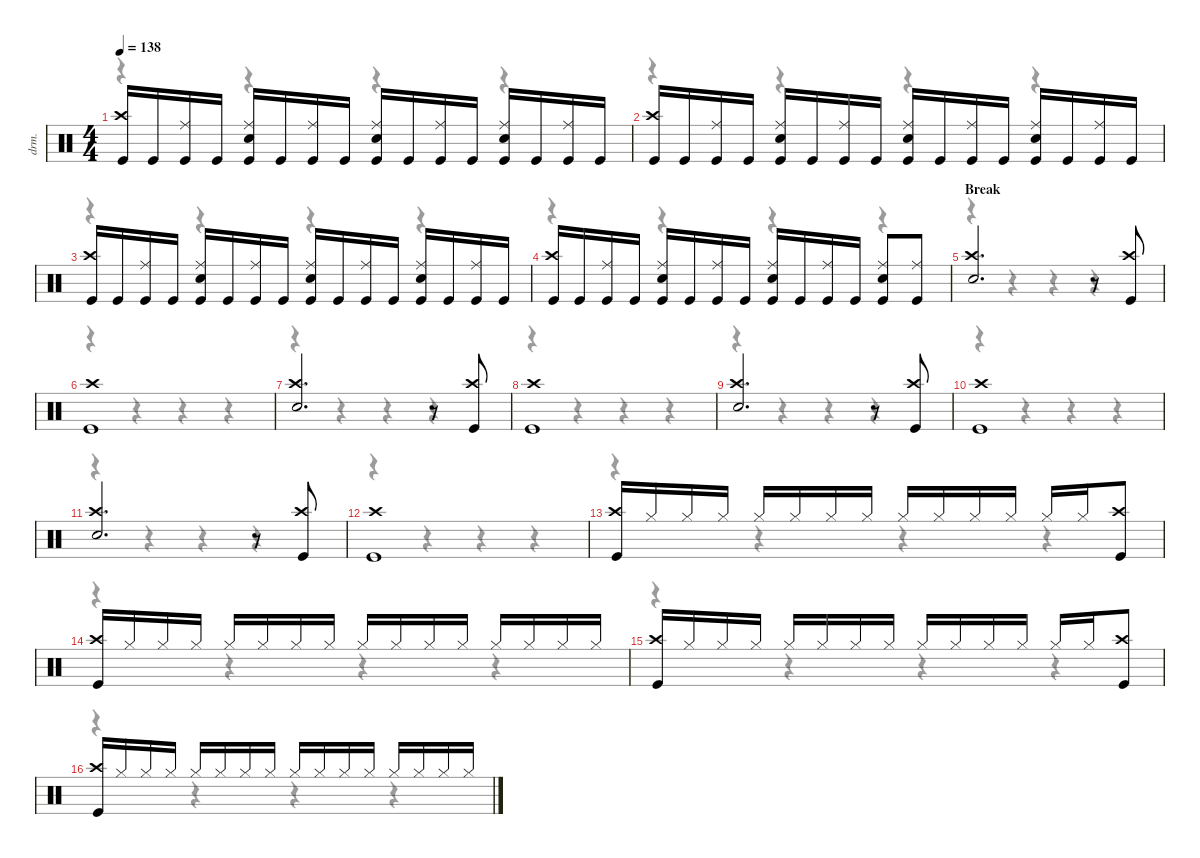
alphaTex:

\defaultSystemsLayout 4
\hideDynamics
\bracketExtendMode nobrackets
\track ("Drumkit" "drm.") {instrument percussion}
\staff {score}
\articulation defaults
\voice
\ts (4 4)
\tempo 138
\clef neutral
\ks c
("Kick (hit)" "Crash high (hit)").16{dy f} "Kick (hit)".16 ("Kick (hit)" "Ride (middle)").16 "Kick (hit)".16 ("Kick (hit)" "Snare (hit) 2" "Ride (middle)").16 "Kick (hit)".16 ("Kick (hit)" "Ride (middle)").16 "Kick (hit)".16 ("Kick (hit)" "Snare (hit) 2" "Ride (middle)").16 "Kick (hit)".16 ("Kick (hit)" "Ride (middle)").16 "Kick (hit)".16 ("Kick (hit)" "Snare (hit) 2" "Ride (middle)").16 "Kick (hit)".16 ("Kick (hit)" "Ride (middle)").16 "Kick (hit)".16 |
("Kick (hit)" "Crash high (hit)").16 "Kick (hit)".16 ("Kick (hit)" "Ride (middle)").16 "Kick (hit)".16 ("Kick (hit)" "Snare (hit) 2" "Ride (middle)").16 "Kick (hit)".16 ("Kick (hit)" "Ride (middle)").16 "Kick (hit)".16 ("Kick (hit)" "Snare (hit) 2" "Ride (middle)").16 "Kick (hit)".16 ("Kick (hit)" "Ride (middle)").16 "Kick (hit)".16 ("Kick (hit)" "Snare (hit) 2" "Ride (middle)").16 "Kick (hit)".16 ("Kick (hit)" "Ride (middle)").16 "Kick (hit)".16 |
("Kick (hit)" "Crash high (hit)").16 "Kick (hit)".16 ("Kick (hit)" "Ride (middle)").16 "Kick (hit)".16 ("Kick (hit)" "Snare (hit) 2" "Ride (middle)").16 "Kick (hit)".16 ("Kick (hit)" "Ride (middle)").16 "Kick (hit)".16 ("Kick (hit)" "Snare (hit) 2" "Ride (middle)").16 "Kick (hit)".16 ("Kick (hit)" "Ride (middle)").16 "Kick (hit)".16 ("Kick (hit)" "Snare (hit) 2" "Ride (middle)").16 "Kick (hit)".16 ("Kick (hit)" "Ride (middle)").16 "Kick (hit)".16 |
("Kick (hit)" "Crash high (hit)").16 "Kick (hit)".16 ("Kick (hit)" "Ride (middle)").16 "Kick (hit)".16 ("Kick (hit)" "Snare (hit) 2" "Ride (middle)").16 "Kick (hit)".16 ("Kick (hit)" "Ride (middle)").16 "Kick (hit)".16 ("Kick (hit)" "Snare (hit) 2" "Ride (middle)").16 "Kick (hit)".16 ("Kick (hit)" "Ride (middle)").16 "Kick (hit)".16 ("Kick (hit)" "Snare (hit) 2" "Ride (middle)").8 ("Kick (hit)" "Ride (middle)").8 |
\section ("" "Break")
("Snare (hit) 2" "Crash high (hit)").2{d} r.8 ("Kick (hit)" "Crash high (hit)").8 |
("Crash high (hit)" "Kick (hit)").1 |
("Snare (hit) 2" "Crash high (hit)").2{d} r.8 ("Kick (hit)" "Crash high (hit)").8 |
("Crash high (hit)" "Kick (hit)").1 |
("Snare (hit) 2" "Crash high (hit)").2{d} r.8 ("Kick (hit)" "Crash high (hit)").8 |
("Crash high (hit)" "Kick (hit)").1 |
("Snare (hit) 2" "Crash high (hit)").2{d} r.8 ("Kick (hit)" "Crash high (hit)").8 |
("Crash high (hit)" "Kick (hit)").1 |
("Crash high (hit)" "Kick (hit)").16 "Hi-Hat (closed)".16 "Hi-Hat (closed)".16 "Hi-Hat (closed)".16 "Hi-Hat (closed)".16 "Hi-Hat (closed)".16 "Hi-Hat (closed)".16 "Hi-Hat (closed)".16 "Hi-Hat (closed)".16 "Hi-Hat (closed)".16 "Hi-Hat (closed)".16 "Hi-Hat (closed)".16 "Hi-Hat (closed)".16 "Hi-Hat (closed)".16 ("Crash high (hit)" "Kick (hit)").8 |
("Crash high (hit)" "Kick (hit)").16 "Hi-Hat (closed)".16 "Hi-Hat (closed)".16 "Hi-Hat (closed)".16 "Hi-Hat (closed)".16 "Hi-Hat (closed)".16 "Hi-Hat (closed)".16 "Hi-Hat (closed)".16 "Hi-Hat (closed)".16 "Hi-Hat (closed)".16 "Hi-Hat (closed)".16 "Hi-Hat (closed)".16 "Hi-Hat (closed)".16 "Hi-Hat (closed)".16 "Hi-Hat (closed)".16 "Hi-Hat (closed)".16 |
("Crash high (hit)" "Kick (hit)").16 "Hi-Hat (closed)".16 "Hi-Hat (closed)".16 "Hi-Hat (closed)".16 "Hi-Hat (closed)".16 "Hi-Hat (closed)".16 "Hi-Hat (closed)".16 "Hi-Hat (closed)".16 "Hi-Hat (closed)".16 "Hi-Hat (closed)".16 "Hi-Hat (closed)".16 "Hi-Hat (closed)".16 "Hi-Hat (closed)".16 "Hi-Hat (closed)".16 ("Crash high (hit)" "Kick (hit)").8 |
("Crash high (hit)" "Kick (hit)").16 "Hi-Hat (closed)".16 "Hi-Hat (closed)".16 "Hi-Hat (closed)".16 "Hi-Hat (closed)".16 "Hi-Hat (closed)".16 "Hi-Hat (closed)".16 "Hi-Hat (closed)".16 "Hi-Hat (closed)".16 "Hi-Hat (closed)".16 "Hi-Hat (closed)".16 "Hi-Hat (closed)".16 "Hi-Hat (closed)".16 "Hi-Hat (closed)".16 "Hi-Hat (closed)".16 "Hi-Hat (closed)".16
\voice
\clef neutral
\ottava regular
\simile none
\ks c
r.4{dy mf} r.4 r.4 r.4 |
r.4 r.4 r.4 r.4 |
r.4 r.4 r.4 r.4 |
r.4 r.4 r.4 r.4 |
r.4 r.4 r.4 r.4 |
r.4 r.4 r.4 r.4 |
r.4 r.4 r.4 r.4 |
r.4 r.4 r.4 r.4 |
r.4 r.4 r.4 r.4 |
r.4 r.4 r.4 r.4 |
r.4 r.4 r.4 r.4 |
r.4 r.4 r.4 r.4 |
r.4 r.4 r.4 r.4 |
r.4 r.4 r.4 r.4 |
r.4 r.4 r.4 r.4 |
r.4 r.4 r.4 r.4
